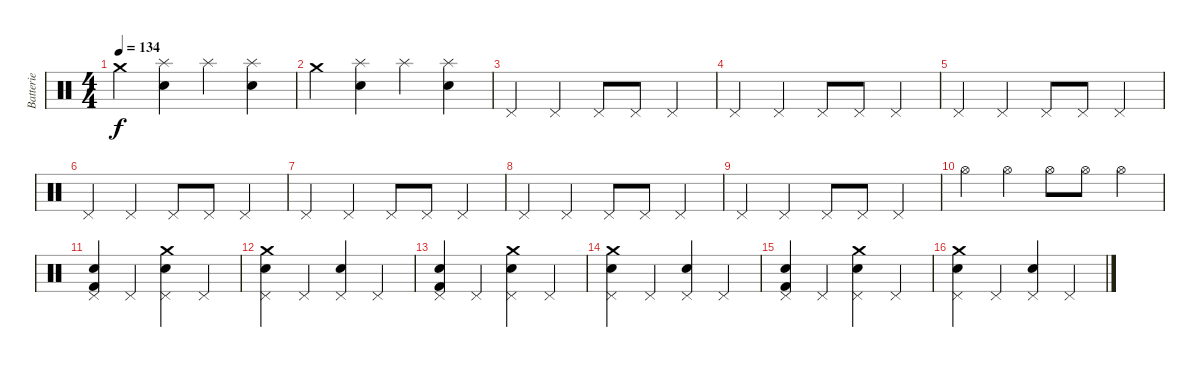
\track ("Batterie" "Batterie") {instrument percussion}
\staff {score}
\articulation defaults
\ts (4 4)
\tempo 134
\clef neutral
\ks c "Crash medium (hit)".4{dy f}
("Splash (hit)" "Electric Snare (hit)").4 "Splash (hit)".4 ("Splash (hit)" "Electric Snare (hit)").4 |
"Crash medium (hit)".4 ("Splash (hit)" "Electric Snare (hit)").4 "Splash (hit)".4 ("Splash (hit)" "Electric Snare (hit)").4 |
"Pedal Hi-Hat (hit)".4 "Pedal Hi-Hat (hit)".4 "Pedal Hi-Hat (hit)".8 "Pedal Hi-Hat (hit)".8 "Pedal Hi-Hat (hit)".4 |
"Pedal Hi-Hat (hit)".4 "Pedal Hi-Hat (hit)".4 "Pedal Hi-Hat (hit)".8 "Pedal Hi-Hat (hit)".8 "Pedal Hi-Hat (hit)".4 |
"Pedal Hi-Hat (hit)".4 "Pedal Hi-Hat (hit)".4 "Pedal Hi-Hat (hit)".8 "Pedal Hi-Hat (hit)".8 "Pedal Hi-Hat (hit)".4 |
"Pedal Hi-Hat (hit)".4 "Pedal Hi-Hat (hit)".4 "Pedal Hi-Hat (hit)".8 "Pedal Hi-Hat (hit)".8 "Pedal Hi-Hat (hit)".4 |
"Pedal Hi-Hat (hit)".4 "Pedal Hi-Hat (hit)".4 "Pedal Hi-Hat (hit)".8 "Pedal Hi-Hat (hit)".8 "Pedal Hi-Hat (hit)".4 |
"Pedal Hi-Hat (hit)".4 "Pedal Hi-Hat (hit)".4 "Pedal Hi-Hat (hit)".8 "Pedal Hi-Hat (hit)".8 "Pedal Hi-Hat (hit)".4 |
"Pedal Hi-Hat (hit)".4 "Pedal Hi-Hat (hit)".4 "Pedal Hi-Hat (hit)".8 "Pedal Hi-Hat (hit)".8 "Pedal Hi-Hat (hit)".4 |
"Hi-Hat (open)".4 "Hi-Hat (open)".4 "Hi-Hat (open)".8 "Hi-Hat (open)".8 "Hi-Hat (open)".4 |
("Pedal Hi-Hat (hit)" "Kick (hit) 2" "Snare (hit) 2").4 "Pedal Hi-Hat (hit)".4 ("Pedal Hi-Hat (hit)" "Crash medium (hit)" "Snare (hit) 2").4 "Pedal Hi-Hat (hit)".4 |
("Pedal Hi-Hat (hit)" "Crash medium (hit)" "Snare (hit) 2").4 "Pedal Hi-Hat (hit)".4 ("Pedal Hi-Hat (hit)" "Snare (hit) 2").4 "Pedal Hi-Hat (hit)".4 |
("Pedal Hi-Hat (hit)" "Kick (hit) 2" "Snare (hit) 2").4 "Pedal Hi-Hat (hit)".4 ("Pedal Hi-Hat (hit)" "Crash medium (hit)" "Snare (hit) 2").4 "Pedal Hi-Hat (hit)".4 |
("Pedal Hi-Hat (hit)" "Crash medium (hit)" "Snare (hit) 2").4 "Pedal Hi-Hat (hit)".4 ("Pedal Hi-Hat (hit)" "Snare (hit) 2").4 "Pedal Hi-Hat (hit)".4 |
("Pedal Hi-Hat (hit)" "Kick (hit) 2" "Snare (hit) 2").4 "Pedal Hi-Hat (hit)".4 ("Pedal Hi-Hat (hit)" "Crash medium (hit)" "Snare (hit) 2").4 "Pedal Hi-Hat (hit)".4 |
("Pedal Hi-Hat (hit)" "Crash medium (hit)" "Snare (hit) 2").4 "Pedal Hi-Hat (hit)".4 ("Pedal Hi-Hat (hit)" "Snare (hit) 2").4 "Pedal Hi-Hat (hit)".4
